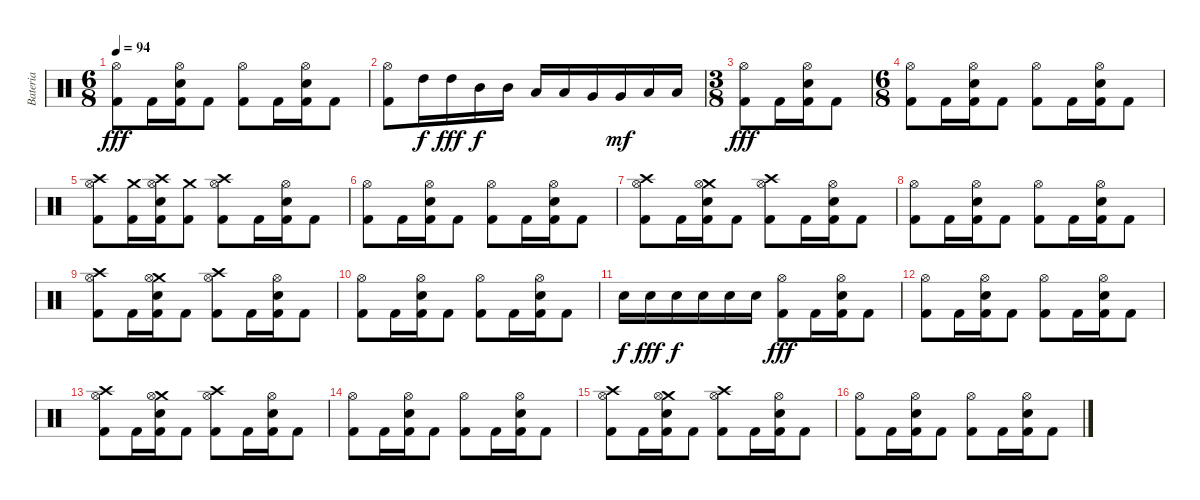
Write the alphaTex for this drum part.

\track ("Bateria" "Bateria") {instrument percussion}
\staff {score}
\articulation defaults
\ts (6 8)
\tempo 94
\clef neutral
\ks c
("Hi-Hat (open)" "Kick (hit) 2").8{dy fff} "Kick (hit) 2".16 ("Hi-Hat (open)" "Electric Snare (hit)" "Kick (hit) 2").16 "Kick (hit) 2".8 ("Hi-Hat (open)" "Kick (hit) 2").8 "Kick (hit) 2".16 ("Hi-Hat (open)" "Electric Snare (hit)" "Kick (hit) 2").16 "Kick (hit) 2".8 |
("Hi-Hat (open)" "Kick (hit) 2").8 "High Tom (hit)".16{dy f} "High Tom (hit)".16{dy fff} "Mid Tom (hit)".16{dy f} "Mid Tom (hit)".16 "Low Tom (hit)".16 "Low Tom (hit)".16 "Very Low Tom (hit)".16 "Very Low Tom (hit)".16{dy mf} "Low Floor Tom (hit)".16 "Low Floor Tom (hit)".16 |
\ts (3 8)
("Hi-Hat (open)" "Kick (hit) 2").8{dy fff} "Kick (hit) 2".16 ("Hi-Hat (open)" "Electric Snare (hit)" "Kick (hit) 2").16 "Kick (hit) 2".8 |
\ts (6 8)
("Hi-Hat (open)" "Kick (hit) 2").8 "Kick (hit) 2".16 ("Hi-Hat (open)" "Electric Snare (hit)" "Kick (hit) 2").16 "Kick (hit) 2".8 ("Hi-Hat (open)" "Kick (hit) 2").8 "Kick (hit) 2".16 ("Hi-Hat (open)" "Electric Snare (hit)" "Kick (hit) 2").16 "Kick (hit) 2".8 |
("Crash high (hit)" "Hi-Hat (open)" "Kick (hit) 2").8 ("Crash medium (hit)" "Kick (hit) 2").16 ("Crash high (hit)" "Hi-Hat (open)" "Electric Snare (hit)" "Kick (hit) 2").16 ("Crash medium (hit)" "Kick (hit) 2").8 ("Crash high (hit)" "Hi-Hat (open)" "Kick (hit) 2").8 "Kick (hit) 2".16 ("Hi-Hat (open)" "Electric Snare (hit)" "Kick (hit) 2").16 "Kick (hit) 2".8 |
("Hi-Hat (open)" "Kick (hit) 2").8 "Kick (hit) 2".16 ("Hi-Hat (open)" "Electric Snare (hit)" "Kick (hit) 2").16 "Kick (hit) 2".8 ("Hi-Hat (open)" "Kick (hit) 2").8 "Kick (hit) 2".16 ("Hi-Hat (open)" "Electric Snare (hit)" "Kick (hit) 2").16 "Kick (hit) 2".8 |
("Crash high (hit)" "Hi-Hat (open)" "Kick (hit) 2").8 "Kick (hit) 2".16 ("Crash medium (hit)" "Hi-Hat (open)" "Electric Snare (hit)" "Kick (hit) 2").16 "Kick (hit) 2".8 ("Crash high (hit)" "Hi-Hat (open)" "Kick (hit) 2").8 "Kick (hit) 2".16 ("Hi-Hat (open)" "Electric Snare (hit)" "Kick (hit) 2").16 "Kick (hit) 2".8 |
("Hi-Hat (open)" "Kick (hit) 2").8 "Kick (hit) 2".16 ("Hi-Hat (open)" "Electric Snare (hit)" "Kick (hit) 2").16 "Kick (hit) 2".8 ("Hi-Hat (open)" "Kick (hit) 2").8 "Kick (hit) 2".16 ("Hi-Hat (open)" "Electric Snare (hit)" "Kick (hit) 2").16 "Kick (hit) 2".8 |
("Crash high (hit)" "Hi-Hat (open)" "Kick (hit) 2").8 "Kick (hit) 2".16 ("Crash medium (hit)" "Hi-Hat (open)" "Electric Snare (hit)" "Kick (hit) 2").16 "Kick (hit) 2".8 ("Crash high (hit)" "Hi-Hat (open)" "Kick (hit) 2").8 "Kick (hit) 2".16 ("Hi-Hat (open)" "Electric Snare (hit)" "Kick (hit) 2").16 "Kick (hit) 2".8 |
("Hi-Hat (open)" "Kick (hit) 2").8 "Kick (hit) 2".16 ("Hi-Hat (open)" "Electric Snare (hit)" "Kick (hit) 2").16 "Kick (hit) 2".8 ("Hi-Hat (open)" "Kick (hit) 2").8 "Kick (hit) 2".16 ("Hi-Hat (open)" "Electric Snare (hit)" "Kick (hit) 2").16 "Kick (hit) 2".8 |
"Electric Snare (hit)".16{dy f} "Electric Snare (hit)".16{dy fff} "Electric Snare (hit)".16{dy f} "Electric Snare (hit)".16 "Electric Snare (hit)".16 "Electric Snare (hit)".16 ("Hi-Hat (open)" "Kick (hit) 2").8{dy fff} "Kick (hit) 2".16 ("Hi-Hat (open)" "Electric Snare (hit)" "Kick (hit) 2").16 "Kick (hit) 2".8 |
("Hi-Hat (open)" "Kick (hit) 2").8 "Kick (hit) 2".16 ("Hi-Hat (open)" "Electric Snare (hit)" "Kick (hit) 2").16 "Kick (hit) 2".8 ("Hi-Hat (open)" "Kick (hit) 2").8 "Kick (hit) 2".16 ("Hi-Hat (open)" "Electric Snare (hit)" "Kick (hit) 2").16 "Kick (hit) 2".8 |
("Crash high (hit)" "Hi-Hat (open)" "Kick (hit) 2").8 "Kick (hit) 2".16 ("Crash medium (hit)" "Hi-Hat (open)" "Electric Snare (hit)" "Kick (hit) 2").16 "Kick (hit) 2".8 ("Crash high (hit)" "Hi-Hat (open)" "Kick (hit) 2").8 "Kick (hit) 2".16 ("Hi-Hat (open)" "Electric Snare (hit)" "Kick (hit) 2").16 "Kick (hit) 2".8 |
("Hi-Hat (open)" "Kick (hit) 2").8 "Kick (hit) 2".16 ("Hi-Hat (open)" "Electric Snare (hit)" "Kick (hit) 2").16 "Kick (hit) 2".8 ("Hi-Hat (open)" "Kick (hit) 2").8 "Kick (hit) 2".16 ("Hi-Hat (open)" "Electric Snare (hit)" "Kick (hit) 2").16 "Kick (hit) 2".8 |
("Crash high (hit)" "Hi-Hat (open)" "Kick (hit) 2").8 "Kick (hit) 2".16 ("Crash medium (hit)" "Hi-Hat (open)" "Electric Snare (hit)" "Kick (hit) 2").16 "Kick (hit) 2".8 ("Crash high (hit)" "Hi-Hat (open)" "Kick (hit) 2").8 "Kick (hit) 2".16 ("Hi-Hat (open)" "Electric Snare (hit)" "Kick (hit) 2").16 "Kick (hit) 2".8 |
("Hi-Hat (open)" "Kick (hit) 2").8 "Kick (hit) 2".16 ("Hi-Hat (open)" "Electric Snare (hit)" "Kick (hit) 2").16 "Kick (hit) 2".8 ("Hi-Hat (open)" "Kick (hit) 2").8 "Kick (hit) 2".16 ("Hi-Hat (open)" "Electric Snare (hit)" "Kick (hit) 2").16 "Kick (hit) 2".8
